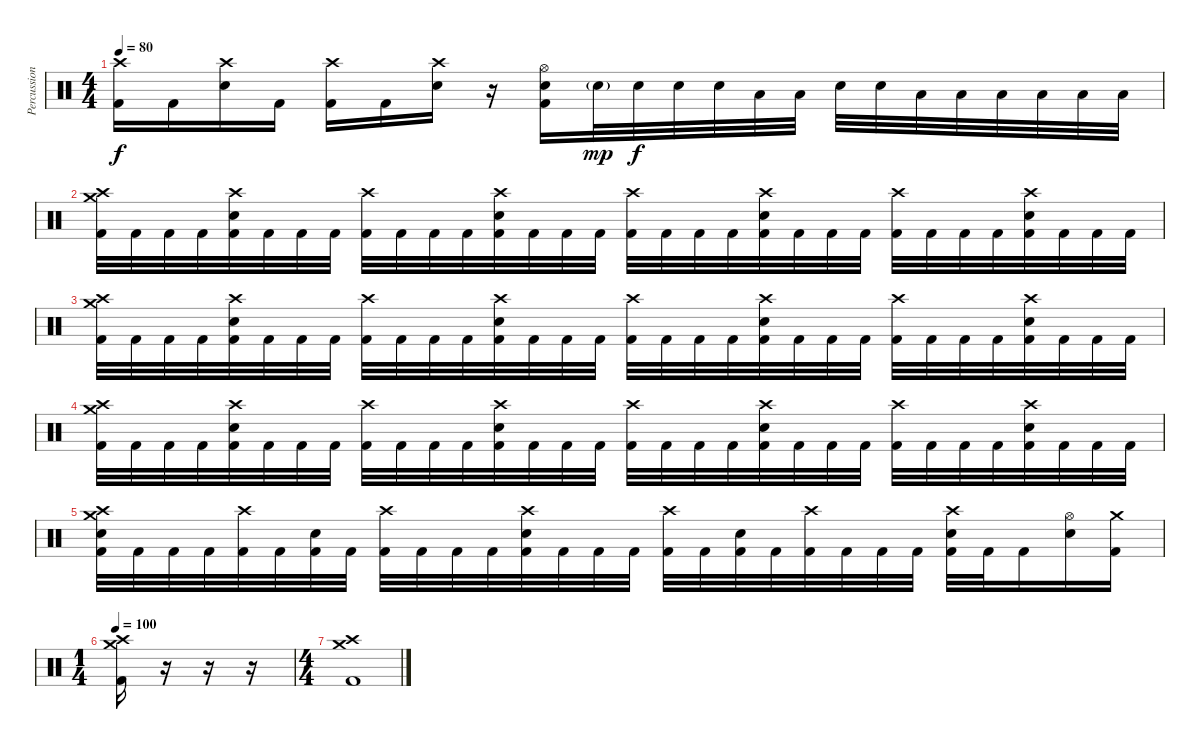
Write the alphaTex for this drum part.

\track ("Percussion" "Percussion") {instrument percussion}
\staff {score}
\articulation defaults
\ts (4 4)
\tempo 80
\clef neutral
\ks c
("Crash high (hit)" "Kick (hit) 2").16{dy f} "Kick (hit) 2".16 ("Crash high (hit)" "Electric Snare (hit)").16 "Kick (hit) 2".16 ("Crash high (hit)" "Kick (hit) 2").16 "Kick (hit) 2".16 ("Crash high (hit)" "Electric Snare (hit)").16 r.16 ("Hi-Hat (open)" "Electric Snare (hit)" "Kick (hit) 2").16 "Electric Snare (hit)"{g}.32{dy mp} "Electric Snare (hit)".32{dy f} "Electric Snare (hit)".32 "Electric Snare (hit)".32 "Low Tom (hit)".32 "Low Tom (hit)".32 "Electric Snare (hit)".32 "Electric Snare (hit)".32 "Low Tom (hit)".32 "Low Tom (hit)".32 "Low Floor Tom (hit)".32 "Low Floor Tom (hit)".32 "Low Floor Tom (hit)".32 "Low Floor Tom (hit)".32 |
("Crash medium (hit)" "Crash high (hit)" "Kick (hit) 2").32 "Kick (hit) 2".32 "Kick (hit) 2".32 "Kick (hit) 2".32 ("Crash high (hit)" "Electric Snare (hit)" "Kick (hit) 2").32 "Kick (hit) 2".32 "Kick (hit) 2".32 "Kick (hit) 2".32 ("Crash high (hit)" "Kick (hit) 2").32 "Kick (hit) 2".32 "Kick (hit) 2".32 "Kick (hit) 2".32 ("Crash high (hit)" "Electric Snare (hit)" "Kick (hit) 2").32 "Kick (hit) 2".32 "Kick (hit) 2".32 "Kick (hit) 2".32 ("Crash high (hit)" "Kick (hit) 2").32 "Kick (hit) 2".32 "Kick (hit) 2".32 "Kick (hit) 2".32 ("Crash high (hit)" "Electric Snare (hit)" "Kick (hit) 2").32 "Kick (hit) 2".32 "Kick (hit) 2".32 "Kick (hit) 2".32 ("Crash high (hit)" "Kick (hit) 2").32 "Kick (hit) 2".32 "Kick (hit) 2".32 "Kick (hit) 2".32 ("Crash high (hit)" "Electric Snare (hit)" "Kick (hit) 2").32 "Kick (hit) 2".32 "Kick (hit) 2".32 "Kick (hit) 2".32 |
("Crash medium (hit)" "Crash high (hit)" "Kick (hit) 2").32 "Kick (hit) 2".32 "Kick (hit) 2".32 "Kick (hit) 2".32 ("Crash high (hit)" "Electric Snare (hit)" "Kick (hit) 2").32 "Kick (hit) 2".32 "Kick (hit) 2".32 "Kick (hit) 2".32 ("Crash high (hit)" "Kick (hit) 2").32 "Kick (hit) 2".32 "Kick (hit) 2".32 "Kick (hit) 2".32 ("Crash high (hit)" "Electric Snare (hit)" "Kick (hit) 2").32 "Kick (hit) 2".32 "Kick (hit) 2".32 "Kick (hit) 2".32 ("Crash high (hit)" "Kick (hit) 2").32 "Kick (hit) 2".32 "Kick (hit) 2".32 "Kick (hit) 2".32 ("Crash high (hit)" "Electric Snare (hit)" "Kick (hit) 2").32 "Kick (hit) 2".32 "Kick (hit) 2".32 "Kick (hit) 2".32 ("Crash high (hit)" "Kick (hit) 2").32 "Kick (hit) 2".32 "Kick (hit) 2".32 "Kick (hit) 2".32 ("Crash high (hit)" "Electric Snare (hit)" "Kick (hit) 2").32 "Kick (hit) 2".32 "Kick (hit) 2".32 "Kick (hit) 2".32 |
("Crash medium (hit)" "Crash high (hit)" "Kick (hit) 2").32 "Kick (hit) 2".32 "Kick (hit) 2".32 "Kick (hit) 2".32 ("Crash high (hit)" "Electric Snare (hit)" "Kick (hit) 2").32 "Kick (hit) 2".32 "Kick (hit) 2".32 "Kick (hit) 2".32 ("Crash high (hit)" "Kick (hit) 2").32 "Kick (hit) 2".32 "Kick (hit) 2".32 "Kick (hit) 2".32 ("Crash high (hit)" "Electric Snare (hit)" "Kick (hit) 2").32 "Kick (hit) 2".32 "Kick (hit) 2".32 "Kick (hit) 2".32 ("Crash high (hit)" "Kick (hit) 2").32 "Kick (hit) 2".32 "Kick (hit) 2".32 "Kick (hit) 2".32 ("Crash high (hit)" "Electric Snare (hit)" "Kick (hit) 2").32 "Kick (hit) 2".32 "Kick (hit) 2".32 "Kick (hit) 2".32 ("Crash high (hit)" "Kick (hit) 2").32 "Kick (hit) 2".32 "Kick (hit) 2".32 "Kick (hit) 2".32 ("Crash high (hit)" "Electric Snare (hit)" "Kick (hit) 2").32 "Kick (hit) 2".32 "Kick (hit) 2".32 "Kick (hit) 2".32 |
("Crash medium (hit)" "Crash high (hit)" "Electric Snare (hit)" "Kick (hit) 2").32 "Kick (hit) 2".32 "Kick (hit) 2".32 "Kick (hit) 2".32 ("Crash high (hit)" "Kick (hit) 2").32 "Kick (hit) 2".32 ("Electric Snare (hit)" "Kick (hit) 2").32 "Kick (hit) 2".32 ("Crash high (hit)" "Kick (hit) 2").32 "Kick (hit) 2".32 "Kick (hit) 2".32 "Kick (hit) 2".32 ("Crash high (hit)" "Electric Snare (hit)" "Kick (hit) 2").32 "Kick (hit) 2".32 "Kick (hit) 2".32 "Kick (hit) 2".32 ("Crash high (hit)" "Kick (hit) 2").32 "Kick (hit) 2".32 ("Electric Snare (hit)" "Kick (hit) 2").32 "Kick (hit) 2".32 ("Crash high (hit)" "Kick (hit) 2").32 "Kick (hit) 2".32 "Kick (hit) 2".32 "Kick (hit) 2".32 ("Crash high (hit)" "Electric Snare (hit)" "Kick (hit) 2").32 "Kick (hit) 2".32 "Kick (hit) 2".16 ("Hi-Hat (open)" "Electric Snare (hit)").16 ("Crash medium (hit)" "Kick (hit) 2").16 |
\ts (1 4)
\tempo 100
("Crash medium (hit)" "Crash high (hit)" "Kick (hit) 2").16 r.16{volume 0} r.16 r.16 |
\ts (4 4)
("Crash medium (hit)" "Crash high (hit)" "Kick (hit) 2").1{volume 13}
